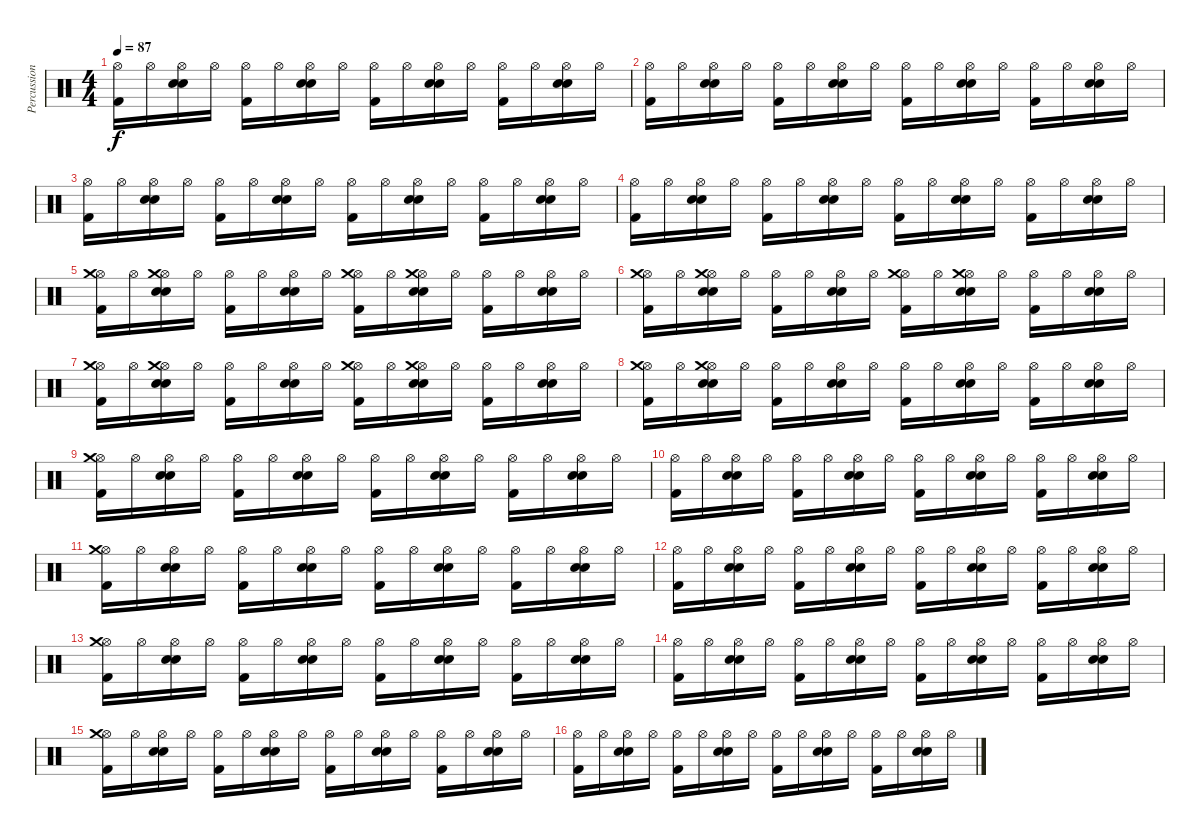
\track ("Percussion" "Percussion") {instrument percussion}
\staff {score}
\articulation defaults
\ts (4 4)
\tempo 87
\clef neutral
\ks c
("Hi-Hat (open)" "Kick (hit) 2").16{dy f} "Hi-Hat (open)".16 ("Hi-Hat (open)" "Snare (hit) 2" "Electric Snare (hit)").16 "Hi-Hat (open)".16 ("Hi-Hat (open)" "Kick (hit) 2").16 "Hi-Hat (open)".16 ("Hi-Hat (open)" "Snare (hit) 2" "Electric Snare (hit)").16 "Hi-Hat (open)".16 ("Hi-Hat (open)" "Kick (hit) 2").16 "Hi-Hat (open)".16 ("Hi-Hat (open)" "Snare (hit) 2" "Electric Snare (hit)").16 "Hi-Hat (open)".16 ("Hi-Hat (open)" "Kick (hit) 2").16 "Hi-Hat (open)".16 ("Hi-Hat (open)" "Snare (hit) 2" "Electric Snare (hit)").16 "Hi-Hat (open)".16 |
("Hi-Hat (open)" "Kick (hit) 2").16 "Hi-Hat (open)".16 ("Hi-Hat (open)" "Snare (hit) 2" "Electric Snare (hit)").16 "Hi-Hat (open)".16 ("Hi-Hat (open)" "Kick (hit) 2").16 "Hi-Hat (open)".16 ("Hi-Hat (open)" "Snare (hit) 2" "Electric Snare (hit)").16 "Hi-Hat (open)".16 ("Hi-Hat (open)" "Kick (hit) 2").16 "Hi-Hat (open)".16 ("Hi-Hat (open)" "Snare (hit) 2" "Electric Snare (hit)").16 "Hi-Hat (open)".16 ("Hi-Hat (open)" "Kick (hit) 2").16 "Hi-Hat (open)".16 ("Hi-Hat (open)" "Snare (hit) 2" "Electric Snare (hit)").16 "Hi-Hat (open)".16 |
("Hi-Hat (open)" "Kick (hit) 2").16 "Hi-Hat (open)".16 ("Hi-Hat (open)" "Snare (hit) 2" "Electric Snare (hit)").16 "Hi-Hat (open)".16 ("Hi-Hat (open)" "Kick (hit) 2").16 "Hi-Hat (open)".16 ("Hi-Hat (open)" "Snare (hit) 2" "Electric Snare (hit)").16 "Hi-Hat (open)".16 ("Hi-Hat (open)" "Kick (hit) 2").16 "Hi-Hat (open)".16 ("Hi-Hat (open)" "Snare (hit) 2" "Electric Snare (hit)").16 "Hi-Hat (open)".16 ("Hi-Hat (open)" "Kick (hit) 2").16 "Hi-Hat (open)".16 ("Hi-Hat (open)" "Snare (hit) 2" "Electric Snare (hit)").16 "Hi-Hat (open)".16 |
("Hi-Hat (open)" "Kick (hit) 2").16 "Hi-Hat (open)".16 ("Hi-Hat (open)" "Snare (hit) 2" "Electric Snare (hit)").16 "Hi-Hat (open)".16 ("Hi-Hat (open)" "Kick (hit) 2").16 "Hi-Hat (open)".16 ("Hi-Hat (open)" "Snare (hit) 2" "Electric Snare (hit)").16 "Hi-Hat (open)".16 ("Hi-Hat (open)" "Kick (hit) 2").16 "Hi-Hat (open)".16 ("Hi-Hat (open)" "Snare (hit) 2" "Electric Snare (hit)").16 "Hi-Hat (open)".16 ("Hi-Hat (open)" "Kick (hit) 2").16 "Hi-Hat (open)".16 ("Hi-Hat (open)" "Snare (hit) 2" "Electric Snare (hit)").16 "Hi-Hat (open)".16 |
("Hi-Hat (open)" "Crash medium (hit)" "Kick (hit) 2").16 "Hi-Hat (open)".16 ("Hi-Hat (open)" "Crash medium (hit)" "Snare (hit) 2" "Electric Snare (hit)").16 "Hi-Hat (open)".16 ("Hi-Hat (open)" "Kick (hit) 2").16 "Hi-Hat (open)".16 ("Hi-Hat (open)" "Snare (hit) 2" "Electric Snare (hit)").16 "Hi-Hat (open)".16 ("Hi-Hat (open)" "Crash medium (hit)" "Kick (hit) 2").16 "Hi-Hat (open)".16 ("Hi-Hat (open)" "Crash medium (hit)" "Snare (hit) 2" "Electric Snare (hit)").16 "Hi-Hat (open)".16 ("Hi-Hat (open)" "Kick (hit) 2").16 "Hi-Hat (open)".16 ("Hi-Hat (open)" "Snare (hit) 2" "Electric Snare (hit)").16 "Hi-Hat (open)".16 |
("Hi-Hat (open)" "Crash medium (hit)" "Kick (hit) 2").16 "Hi-Hat (open)".16 ("Hi-Hat (open)" "Crash medium (hit)" "Snare (hit) 2" "Electric Snare (hit)").16 "Hi-Hat (open)".16 ("Hi-Hat (open)" "Kick (hit) 2").16 "Hi-Hat (open)".16 ("Hi-Hat (open)" "Snare (hit) 2" "Electric Snare (hit)").16 "Hi-Hat (open)".16 ("Hi-Hat (open)" "Crash medium (hit)" "Kick (hit) 2").16 "Hi-Hat (open)".16 ("Hi-Hat (open)" "Crash medium (hit)" "Snare (hit) 2" "Electric Snare (hit)").16 "Hi-Hat (open)".16 ("Hi-Hat (open)" "Kick (hit) 2").16 "Hi-Hat (open)".16 ("Hi-Hat (open)" "Snare (hit) 2" "Electric Snare (hit)").16 "Hi-Hat (open)".16 |
("Hi-Hat (open)" "Crash medium (hit)" "Kick (hit) 2").16 "Hi-Hat (open)".16 ("Hi-Hat (open)" "Crash medium (hit)" "Snare (hit) 2" "Electric Snare (hit)").16 "Hi-Hat (open)".16 ("Hi-Hat (open)" "Kick (hit) 2").16 "Hi-Hat (open)".16 ("Hi-Hat (open)" "Snare (hit) 2" "Electric Snare (hit)").16 "Hi-Hat (open)".16 ("Hi-Hat (open)" "Crash medium (hit)" "Kick (hit) 2").16 "Hi-Hat (open)".16 ("Hi-Hat (open)" "Crash medium (hit)" "Snare (hit) 2" "Electric Snare (hit)").16 "Hi-Hat (open)".16 ("Hi-Hat (open)" "Kick (hit) 2").16 "Hi-Hat (open)".16 ("Hi-Hat (open)" "Snare (hit) 2" "Electric Snare (hit)").16 "Hi-Hat (open)".16 |
("Hi-Hat (open)" "Crash medium (hit)" "Kick (hit) 2").16 "Hi-Hat (open)".16 ("Hi-Hat (open)" "Crash medium (hit)" "Snare (hit) 2" "Electric Snare (hit)").16 "Hi-Hat (open)".16 ("Hi-Hat (open)" "Kick (hit) 2").16 "Hi-Hat (open)".16 ("Hi-Hat (open)" "Snare (hit) 2" "Electric Snare (hit)").16 "Hi-Hat (open)".16 ("Hi-Hat (open)" "Kick (hit) 2").16 "Hi-Hat (open)".16 ("Hi-Hat (open)" "Snare (hit) 2" "Electric Snare (hit)").16 "Hi-Hat (open)".16 ("Hi-Hat (open)" "Kick (hit) 2").16 "Hi-Hat (open)".16 ("Hi-Hat (open)" "Snare (hit) 2" "Electric Snare (hit)").16 "Hi-Hat (open)".16 |
("Hi-Hat (open)" "Crash medium (hit)" "Kick (hit) 2").16 "Hi-Hat (open)".16 ("Hi-Hat (open)" "Snare (hit) 2" "Electric Snare (hit)").16 "Hi-Hat (open)".16 ("Hi-Hat (open)" "Kick (hit) 2").16 "Hi-Hat (open)".16 ("Hi-Hat (open)" "Snare (hit) 2" "Electric Snare (hit)").16 "Hi-Hat (open)".16 ("Hi-Hat (open)" "Kick (hit) 2").16 "Hi-Hat (open)".16 ("Hi-Hat (open)" "Snare (hit) 2" "Electric Snare (hit)").16 "Hi-Hat (open)".16 ("Hi-Hat (open)" "Kick (hit) 2").16 "Hi-Hat (open)".16 ("Hi-Hat (open)" "Snare (hit) 2" "Electric Snare (hit)").16 "Hi-Hat (open)".16 |
("Hi-Hat (open)" "Kick (hit) 2").16 "Hi-Hat (open)".16 ("Hi-Hat (open)" "Snare (hit) 2" "Electric Snare (hit)").16 "Hi-Hat (open)".16 ("Hi-Hat (open)" "Kick (hit) 2").16 "Hi-Hat (open)".16 ("Hi-Hat (open)" "Snare (hit) 2" "Electric Snare (hit)").16 "Hi-Hat (open)".16 ("Hi-Hat (open)" "Kick (hit) 2").16 "Hi-Hat (open)".16 ("Hi-Hat (open)" "Snare (hit) 2" "Electric Snare (hit)").16 "Hi-Hat (open)".16 ("Hi-Hat (open)" "Kick (hit) 2").16 "Hi-Hat (open)".16 ("Hi-Hat (open)" "Snare (hit) 2" "Electric Snare (hit)").16 "Hi-Hat (open)".16 |
("Hi-Hat (open)" "Crash medium (hit)" "Kick (hit) 2").16 "Hi-Hat (open)".16 ("Hi-Hat (open)" "Snare (hit) 2" "Electric Snare (hit)").16 "Hi-Hat (open)".16 ("Hi-Hat (open)" "Kick (hit) 2").16 "Hi-Hat (open)".16 ("Hi-Hat (open)" "Snare (hit) 2" "Electric Snare (hit)").16 "Hi-Hat (open)".16 ("Hi-Hat (open)" "Kick (hit) 2").16 "Hi-Hat (open)".16 ("Hi-Hat (open)" "Snare (hit) 2" "Electric Snare (hit)").16 "Hi-Hat (open)".16 ("Hi-Hat (open)" "Kick (hit) 2").16 "Hi-Hat (open)".16 ("Hi-Hat (open)" "Snare (hit) 2" "Electric Snare (hit)").16 "Hi-Hat (open)".16 |
("Hi-Hat (open)" "Kick (hit) 2").16 "Hi-Hat (open)".16 ("Hi-Hat (open)" "Snare (hit) 2" "Electric Snare (hit)").16 "Hi-Hat (open)".16 ("Hi-Hat (open)" "Kick (hit) 2").16 "Hi-Hat (open)".16 ("Hi-Hat (open)" "Snare (hit) 2" "Electric Snare (hit)").16 "Hi-Hat (open)".16 ("Hi-Hat (open)" "Kick (hit) 2").16 "Hi-Hat (open)".16 ("Hi-Hat (open)" "Snare (hit) 2" "Electric Snare (hit)").16 "Hi-Hat (open)".16 ("Hi-Hat (open)" "Kick (hit) 2").16 "Hi-Hat (open)".16 ("Hi-Hat (open)" "Snare (hit) 2" "Electric Snare (hit)").16 "Hi-Hat (open)".16 |
("Hi-Hat (open)" "Crash medium (hit)" "Kick (hit) 2").16 "Hi-Hat (open)".16 ("Hi-Hat (open)" "Snare (hit) 2" "Electric Snare (hit)").16 "Hi-Hat (open)".16 ("Hi-Hat (open)" "Kick (hit) 2").16 "Hi-Hat (open)".16 ("Hi-Hat (open)" "Snare (hit) 2" "Electric Snare (hit)").16 "Hi-Hat (open)".16 ("Hi-Hat (open)" "Kick (hit) 2").16 "Hi-Hat (open)".16 ("Hi-Hat (open)" "Snare (hit) 2" "Electric Snare (hit)").16 "Hi-Hat (open)".16 ("Hi-Hat (open)" "Kick (hit) 2").16 "Hi-Hat (open)".16 ("Hi-Hat (open)" "Snare (hit) 2" "Electric Snare (hit)").16 "Hi-Hat (open)".16 |
("Hi-Hat (open)" "Kick (hit) 2").16 "Hi-Hat (open)".16 ("Hi-Hat (open)" "Snare (hit) 2" "Electric Snare (hit)").16 "Hi-Hat (open)".16 ("Hi-Hat (open)" "Kick (hit) 2").16 "Hi-Hat (open)".16 ("Hi-Hat (open)" "Snare (hit) 2" "Electric Snare (hit)").16 "Hi-Hat (open)".16 ("Hi-Hat (open)" "Kick (hit) 2").16 "Hi-Hat (open)".16 ("Hi-Hat (open)" "Snare (hit) 2" "Electric Snare (hit)").16 "Hi-Hat (open)".16 ("Hi-Hat (open)" "Kick (hit) 2").16 "Hi-Hat (open)".16 ("Hi-Hat (open)" "Snare (hit) 2" "Electric Snare (hit)").16 "Hi-Hat (open)".16 |
("Hi-Hat (open)" "Crash medium (hit)" "Kick (hit) 2").16 "Hi-Hat (open)".16 ("Hi-Hat (open)" "Snare (hit) 2" "Electric Snare (hit)").16 "Hi-Hat (open)".16 ("Hi-Hat (open)" "Kick (hit) 2").16 "Hi-Hat (open)".16 ("Hi-Hat (open)" "Snare (hit) 2" "Electric Snare (hit)").16 "Hi-Hat (open)".16 ("Hi-Hat (open)" "Kick (hit) 2").16 "Hi-Hat (open)".16 ("Hi-Hat (open)" "Snare (hit) 2" "Electric Snare (hit)").16 "Hi-Hat (open)".16 ("Hi-Hat (open)" "Kick (hit) 2").16 "Hi-Hat (open)".16 ("Hi-Hat (open)" "Snare (hit) 2" "Electric Snare (hit)").16 "Hi-Hat (open)".16 |
("Hi-Hat (open)" "Kick (hit) 2").16 "Hi-Hat (open)".16 ("Hi-Hat (open)" "Snare (hit) 2" "Electric Snare (hit)").16 "Hi-Hat (open)".16 ("Hi-Hat (open)" "Kick (hit) 2").16 "Hi-Hat (open)".16 ("Hi-Hat (open)" "Snare (hit) 2" "Electric Snare (hit)").16 "Hi-Hat (open)".16 ("Hi-Hat (open)" "Kick (hit) 2").16 "Hi-Hat (open)".16 ("Hi-Hat (open)" "Snare (hit) 2" "Electric Snare (hit)").16 "Hi-Hat (open)".16 ("Hi-Hat (open)" "Kick (hit) 2").16 "Hi-Hat (open)".16 ("Hi-Hat (open)" "Snare (hit) 2" "Electric Snare (hit)").16 "Hi-Hat (open)".16
